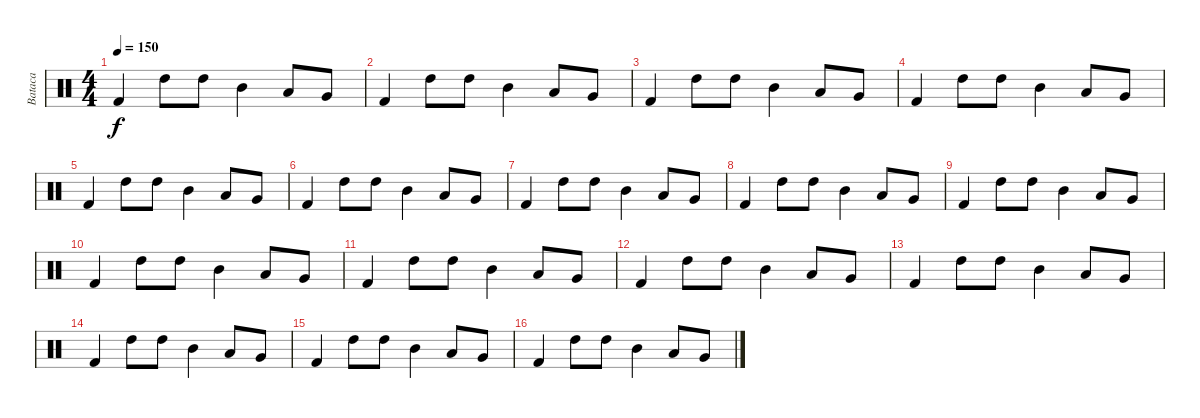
\track ("Bataca" "Bataca") {instrument percussion}
\staff {score}
\articulation defaults
\ts (4 4)
\tempo 150
\clef neutral
\ks c "Kick (hit) 2".4{dy f} "High Tom (hit)".8 "High Tom (hit)".8 "Mid Tom (hit)".4 "Low Tom (hit)".8 "Very Low Tom (hit)".8
|
"Kick (hit) 2".4 "High Tom (hit)".8 "High Tom (hit)".8 "Mid Tom (hit)".4 "Low Tom (hit)".8 "Very Low Tom (hit)".8 |
"Kick (hit) 2".4 "High Tom (hit)".8 "High Tom (hit)".8 "Mid Tom (hit)".4 "Low Tom (hit)".8 "Very Low Tom (hit)".8 |
"Kick (hit) 2".4 "High Tom (hit)".8 "High Tom (hit)".8 "Mid Tom (hit)".4 "Low Tom (hit)".8 "Very Low Tom (hit)".8 |
"Kick (hit) 2".4 "High Tom (hit)".8 "High Tom (hit)".8 "Mid Tom (hit)".4 "Low Tom (hit)".8 "Very Low Tom (hit)".8 |
"Kick (hit) 2".4 "High Tom (hit)".8 "High Tom (hit)".8 "Mid Tom (hit)".4 "Low Tom (hit)".8 "Very Low Tom (hit)".8 |
"Kick (hit) 2".4 "High Tom (hit)".8 "High Tom (hit)".8 "Mid Tom (hit)".4 "Low Tom (hit)".8 "Very Low Tom (hit)".8 |
"Kick (hit) 2".4 "High Tom (hit)".8 "High Tom (hit)".8 "Mid Tom (hit)".4 "Low Tom (hit)".8 "Very Low Tom (hit)".8 |
"Kick (hit) 2".4 "High Tom (hit)".8 "High Tom (hit)".8 "Mid Tom (hit)".4 "Low Tom (hit)".8 "Very Low Tom (hit)".8 |
"Kick (hit) 2".4 "High Tom (hit)".8 "High Tom (hit)".8 "Mid Tom (hit)".4 "Low Tom (hit)".8 "Very Low Tom (hit)".8 |
"Kick (hit) 2".4 "High Tom (hit)".8 "High Tom (hit)".8 "Mid Tom (hit)".4 "Low Tom (hit)".8 "Very Low Tom (hit)".8 |
"Kick (hit) 2".4 "High Tom (hit)".8 "High Tom (hit)".8 "Mid Tom (hit)".4 "Low Tom (hit)".8 "Very Low Tom (hit)".8 |
"Kick (hit) 2".4 "High Tom (hit)".8 "High Tom (hit)".8 "Mid Tom (hit)".4 "Low Tom (hit)".8 "Very Low Tom (hit)".8 |
"Kick (hit) 2".4 "High Tom (hit)".8 "High Tom (hit)".8 "Mid Tom (hit)".4 "Low Tom (hit)".8 "Very Low Tom (hit)".8 |
"Kick (hit) 2".4 "High Tom (hit)".8 "High Tom (hit)".8 "Mid Tom (hit)".4 "Low Tom (hit)".8 "Very Low Tom (hit)".8 |
"Kick (hit) 2".4 "High Tom (hit)".8 "High Tom (hit)".8 "Mid Tom (hit)".4 "Low Tom (hit)".8 "Very Low Tom (hit)".8
